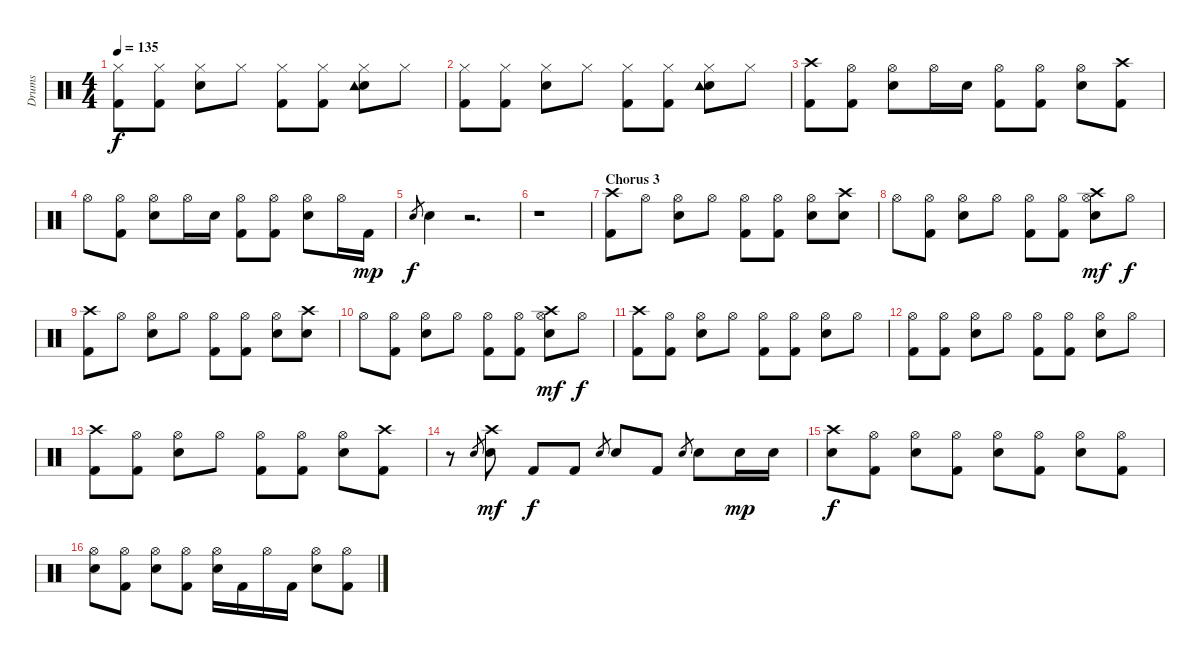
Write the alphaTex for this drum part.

\track ("Drums" "Drums") {instrument percussion}
\staff {score}
\articulation defaults
\ts (4 4)
\tempo 135
\clef neutral
\ks c
("Hi-Hat (closed)" "Kick (hit) 2").8{dy f} ("Hi-Hat (closed)" "Kick (hit) 2").8 ("Hi-Hat (closed)" "Snare (hit) 2").8 "Hi-Hat (closed)".8 ("Hi-Hat (closed)" "Kick (hit) 2").8 ("Hi-Hat (closed)" "Kick (hit) 2").8 ("Hi-Hat (closed)" "Snare (hit) 2" "Tambourine (hit)").8 "Hi-Hat (closed)".8 |
("Hi-Hat (closed)" "Kick (hit) 2").8 ("Hi-Hat (closed)" "Kick (hit) 2").8 ("Hi-Hat (closed)" "Snare (hit) 2").8 "Hi-Hat (closed)".8 ("Hi-Hat (closed)" "Kick (hit) 2").8 ("Hi-Hat (closed)" "Kick (hit) 2").8 ("Hi-Hat (closed)" "Snare (hit) 2" "Tambourine (hit)").8 "Hi-Hat (closed)".8 |
("Crash high (hit)" "Kick (hit) 2").8 ("Hi-Hat (open)" "Kick (hit) 2").8 ("Hi-Hat (open)" "Snare (hit) 2").8 "Hi-Hat (open)".16 "Snare (hit) 2".16 ("Hi-Hat (open)" "Kick (hit) 2").8 ("Hi-Hat (open)" "Kick (hit) 2").8 ("Hi-Hat (open)" "Snare (hit) 2").8 ("Crash high (hit)" "Kick (hit) 2").8 |
"Hi-Hat (open)".8 ("Hi-Hat (open)" "Kick (hit) 2").8 ("Hi-Hat (open)" "Snare (hit) 2").8 "Hi-Hat (open)".16 "Snare (hit) 2".16 ("Hi-Hat (open)" "Kick (hit) 2").8 ("Hi-Hat (open)" "Kick (hit) 2").8 ("Hi-Hat (open)" "Snare (hit) 2").8 "Hi-Hat (open)".16 "Kick (hit) 2".16{dy mp} |
"Snare (hit) 2".8{gr dy f} "Snare (hit) 2".4 r.2{d} |
r.1 |
\section ("" "Chorus 3")
("Crash high (hit)" "Kick (hit) 2").8 "Hi-Hat (open)".8 ("Hi-Hat (open)" "Snare (hit) 2").8 "Hi-Hat (open)".8 ("Hi-Hat (open)" "Kick (hit) 2").8 ("Hi-Hat (open)" "Kick (hit) 2").8 ("Hi-Hat (open)" "Snare (hit) 2").8 ("Crash high (hit)" "Snare (hit) 2").8 |
"Hi-Hat (open)".8 ("Hi-Hat (open)" "Kick (hit) 2").8 ("Hi-Hat (open)" "Snare (hit) 2").8 "Hi-Hat (open)".8 ("Hi-Hat (open)" "Kick (hit) 2").8 ("Hi-Hat (open)" "Kick (hit) 2").8 ("Crash high (hit)" "Hi-Hat (open)" "Snare (hit) 2").8{dy mf} "Hi-Hat (open)".8{dy f} |
("Crash high (hit)" "Kick (hit) 2").8 "Hi-Hat (open)".8 ("Hi-Hat (open)" "Snare (hit) 2").8 "Hi-Hat (open)".8 ("Hi-Hat (open)" "Kick (hit) 2").8 ("Hi-Hat (open)" "Kick (hit) 2").8 ("Hi-Hat (open)" "Snare (hit) 2").8 ("Crash high (hit)" "Snare (hit) 2").8 |
"Hi-Hat (open)".8 ("Hi-Hat (open)" "Kick (hit) 2").8 ("Hi-Hat (open)" "Snare (hit) 2").8 "Hi-Hat (open)".8 ("Hi-Hat (open)" "Kick (hit) 2").8 ("Hi-Hat (open)" "Kick (hit) 2").8 ("Crash high (hit)" "Hi-Hat (open)" "Snare (hit) 2").8{dy mf} "Hi-Hat (open)".8{dy f} |
("Crash high (hit)" "Kick (hit) 2").8 ("Hi-Hat (open)" "Kick (hit) 2").8 ("Hi-Hat (open)" "Snare (hit) 2").8 "Hi-Hat (open)".8 ("Hi-Hat (open)" "Kick (hit) 2").8 ("Hi-Hat (open)" "Kick (hit) 2").8 ("Hi-Hat (open)" "Snare (hit) 2").8 "Hi-Hat (open)".8 |
("Hi-Hat (open)" "Kick (hit) 2").8 ("Hi-Hat (open)" "Kick (hit) 2").8 ("Hi-Hat (open)" "Snare (hit) 2").8 "Hi-Hat (open)".8 ("Hi-Hat (open)" "Kick (hit) 2").8 ("Hi-Hat (open)" "Kick (hit) 2").8 ("Hi-Hat (open)" "Snare (hit) 2").8 "Hi-Hat (open)".8 |
("Crash high (hit)" "Kick (hit) 2").8 ("Hi-Hat (open)" "Kick (hit) 2").8 ("Hi-Hat (open)" "Snare (hit) 2").8 "Hi-Hat (open)".8 ("Hi-Hat (open)" "Kick (hit) 2").8 ("Hi-Hat (open)" "Kick (hit) 2").8 ("Hi-Hat (open)" "Snare (hit) 2").8 ("Crash high (hit)" "Kick (hit) 2").8 |
r.8 "Snare (hit) 2".8{gr} ("Crash high (hit)" "Snare (hit) 2").8{dy mf} "Kick (hit) 2".8{dy f} "Kick (hit) 2".8 "Snare (hit) 2".8{gr} "Snare (hit) 2".8 "Kick (hit) 2".8 "Snare (hit) 2".8{gr} "Snare (hit) 2".8 "Snare (hit) 2".16{dy mp} "Snare (hit) 2".16 |
("Crash high (hit)" "Snare (hit) 2").8{dy f} ("Hi-Hat (open)" "Kick (hit) 2").8 ("Hi-Hat (open)" "Snare (hit) 2").8 ("Hi-Hat (open)" "Kick (hit) 2").8 ("Hi-Hat (open)" "Snare (hit) 2").8 ("Hi-Hat (open)" "Kick (hit) 2").8 ("Hi-Hat (open)" "Snare (hit) 2").8 ("Hi-Hat (open)" "Kick (hit) 2").8 |
("Hi-Hat (open)" "Snare (hit) 2").8 ("Hi-Hat (open)" "Kick (hit) 2").8 ("Hi-Hat (open)" "Snare (hit) 2").8 ("Hi-Hat (open)" "Kick (hit) 2").8 ("Hi-Hat (open)" "Snare (hit) 2").16 "Kick (hit) 2".16 "Hi-Hat (open)".16 "Kick (hit) 2".16 ("Hi-Hat (open)" "Snare (hit) 2").8 ("Hi-Hat (open)" "Kick (hit) 2").8
